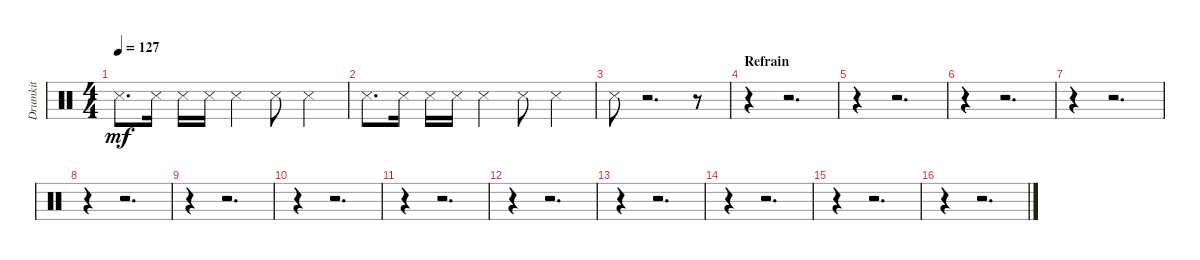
\track ("Drumkit" "Drumkit") {instrument percussion}
\staff {score}
\articulation defaults
\ts (4 4)
\tempo 127
\clef neutral
\ks c "Snare (side stick) 3".8{d dy mf} "Snare (side stick) 3".16 "Snare (side stick) 3".16 "Snare (side stick) 3".16 "Snare (side stick) 3".4 "Snare (side stick) 3".8 "Snare (side stick) 3".4
|
"Snare (side stick) 3".8{d} "Snare (side stick) 3".16 "Snare (side stick) 3".16 "Snare (side stick) 3".16 "Snare (side stick) 3".4 "Snare (side stick) 3".8 "Snare (side stick) 3".4 |
"Snare (side stick) 3".8 r.2{d} r.8 |
\section ("" "Refrain")
r.4 r.2{d} |
r.4 r.2{d} |
r.4 r.2{d} |
r.4 r.2{d} |
r.4 r.2{d} |
r.4 r.2{d} |
r.4 r.2{d} |
r.4 r.2{d} |
r.4 r.2{d} |
r.4 r.2{d} |
r.4 r.2{d} |
r.4 r.2{d} |
r.4 r.2{d}
